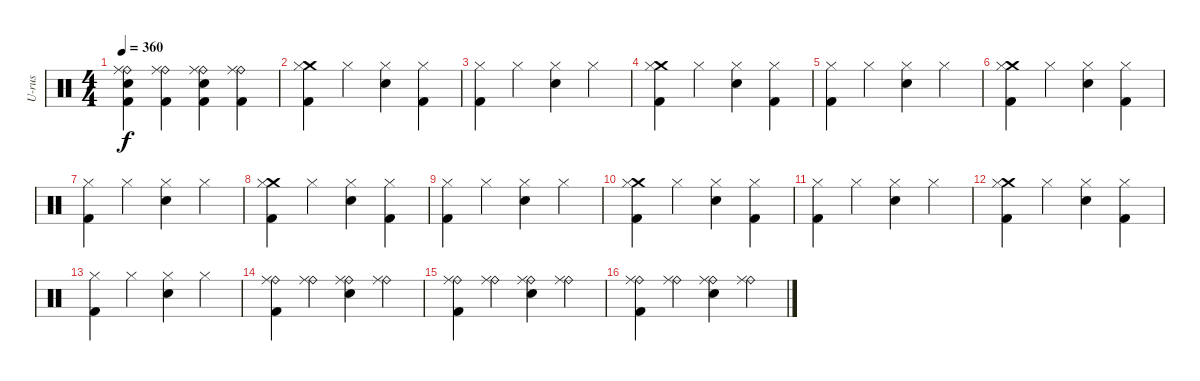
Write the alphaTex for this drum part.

\track ("U-rus" "U-rus") {instrument percussion}
\staff {score}
\articulation defaults
\ts (4 4)
\tempo 360
\clef neutral
\ks c
("Ride (bell)" "Ride (middle)" "Snare (hit) 2" "Kick (hit) 2").4{dy f} ("Ride (bell)" "Ride (middle)" "Kick (hit) 2").4 ("Ride (bell)" "Ride (middle)" "Snare (hit) 2" "Kick (hit) 2").4 ("Ride (bell)" "Ride (middle)" "Kick (hit) 2").4 |
("Crash medium (hit)" "Hi-Hat (closed)" "Kick (hit) 2").4 "Hi-Hat (closed)".4 ("Hi-Hat (closed)" "Snare (hit) 2").4 ("Hi-Hat (closed)" "Kick (hit) 2").4 |
("Hi-Hat (closed)" "Kick (hit) 2").4 "Hi-Hat (closed)".4 ("Hi-Hat (closed)" "Snare (hit) 2").4 "Hi-Hat (closed)".4 |
("Crash medium (hit)" "Hi-Hat (closed)" "Kick (hit) 2").4 "Hi-Hat (closed)".4 ("Hi-Hat (closed)" "Snare (hit) 2").4 ("Hi-Hat (closed)" "Kick (hit) 2").4 |
("Hi-Hat (closed)" "Kick (hit) 2").4 "Hi-Hat (closed)".4 ("Hi-Hat (closed)" "Snare (hit) 2").4 "Hi-Hat (closed)".4 |
("Crash medium (hit)" "Hi-Hat (closed)" "Kick (hit) 2").4 "Hi-Hat (closed)".4 ("Hi-Hat (closed)" "Snare (hit) 2").4 ("Hi-Hat (closed)" "Kick (hit) 2").4 |
("Hi-Hat (closed)" "Kick (hit) 2").4 "Hi-Hat (closed)".4 ("Hi-Hat (closed)" "Snare (hit) 2").4 "Hi-Hat (closed)".4 |
("Crash medium (hit)" "Hi-Hat (closed)" "Kick (hit) 2").4 "Hi-Hat (closed)".4 ("Hi-Hat (closed)" "Snare (hit) 2").4 ("Hi-Hat (closed)" "Kick (hit) 2").4 |
("Hi-Hat (closed)" "Kick (hit) 2").4 "Hi-Hat (closed)".4 ("Hi-Hat (closed)" "Snare (hit) 2").4 "Hi-Hat (closed)".4 |
("Crash medium (hit)" "Hi-Hat (closed)" "Kick (hit) 2").4 "Hi-Hat (closed)".4 ("Hi-Hat (closed)" "Snare (hit) 2").4 ("Hi-Hat (closed)" "Kick (hit) 2").4 |
("Hi-Hat (closed)" "Kick (hit) 2").4 "Hi-Hat (closed)".4 ("Hi-Hat (closed)" "Snare (hit) 2").4 "Hi-Hat (closed)".4 |
("Crash medium (hit)" "Hi-Hat (closed)" "Kick (hit) 2").4 "Hi-Hat (closed)".4 ("Hi-Hat (closed)" "Snare (hit) 2").4 ("Hi-Hat (closed)" "Kick (hit) 2").4 |
("Hi-Hat (closed)" "Kick (hit) 2").4 "Hi-Hat (closed)".4 ("Hi-Hat (closed)" "Snare (hit) 2").4 "Hi-Hat (closed)".4 |
("Ride (bell)" "Ride (middle)" "Kick (hit) 2").4 ("Ride (bell)" "Ride (middle)").4 ("Ride (bell)" "Ride (middle)" "Snare (hit) 2").4 ("Ride (bell)" "Ride (middle)").4 |
("Ride (bell)" "Ride (middle)" "Kick (hit) 2").4 ("Ride (bell)" "Ride (middle)").4 ("Ride (bell)" "Ride (middle)" "Snare (hit) 2").4 ("Ride (bell)" "Ride (middle)").4 |
("Ride (bell)" "Ride (middle)" "Kick (hit) 2").4 ("Ride (bell)" "Ride (middle)").4 ("Ride (bell)" "Ride (middle)" "Snare (hit) 2").4 ("Ride (bell)" "Ride (middle)").4
